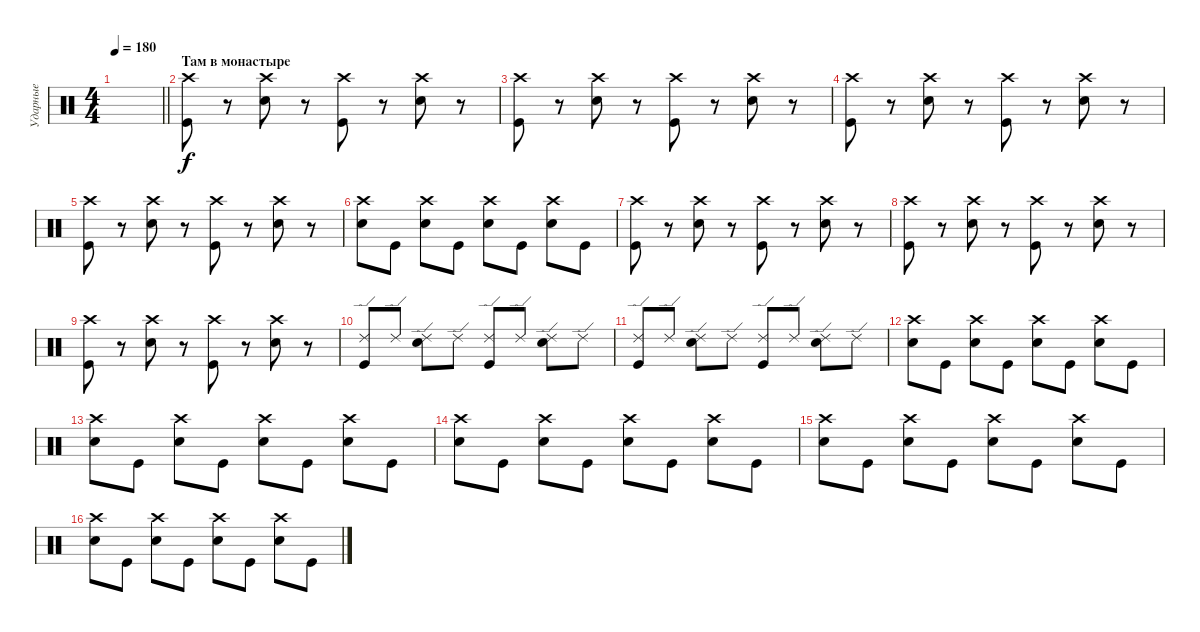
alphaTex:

\track ("Ударные" "Ударные") {instrument percussion}
\staff {score}
\articulation defaults
\ts (4 4)
\tempo 180
\clef neutral
\barLineRight lightlight
\ks c
|
\section ("" "Там в монастыре")
("Kick (hit)" "Crash high (hit)").8 r.8 ("Electric Snare (hit)" "Crash high (hit)").8 r.8 ("Kick (hit)" "Crash high (hit)").8 r.8 ("Electric Snare (hit)" "Crash high (hit)").8 r.8 |
("Kick (hit)" "Crash high (hit)").8 r.8 ("Electric Snare (hit)" "Crash high (hit)").8 r.8 ("Kick (hit)" "Crash high (hit)").8 r.8 ("Electric Snare (hit)" "Crash high (hit)").8 r.8 |
("Kick (hit)" "Crash high (hit)").8 r.8 ("Electric Snare (hit)" "Crash high (hit)").8 r.8 ("Kick (hit)" "Crash high (hit)").8 r.8 ("Electric Snare (hit)" "Crash high (hit)").8 r.8 |
("Kick (hit)" "Crash high (hit)").8 r.8 ("Electric Snare (hit)" "Crash high (hit)").8 r.8 ("Kick (hit)" "Crash high (hit)").8 r.8 ("Electric Snare (hit)" "Crash high (hit)").8 r.8 |
("Electric Snare (hit)" "Crash high (hit)").8 "Kick (hit)".8 ("Electric Snare (hit)" "Crash high (hit)").8 "Kick (hit)".8 ("Electric Snare (hit)" "Crash high (hit)").8 "Kick (hit)".8 ("Electric Snare (hit)" "Crash high (hit)").8 "Kick (hit)".8 |
("Kick (hit)" "Crash high (hit)").8 r.8 ("Electric Snare (hit)" "Crash high (hit)").8 r.8 ("Kick (hit)" "Crash high (hit)").8 r.8 ("Electric Snare (hit)" "Crash high (hit)").8 r.8 |
("Kick (hit)" "Crash high (hit)").8 r.8 ("Electric Snare (hit)" "Crash high (hit)").8 r.8 ("Kick (hit)" "Crash high (hit)").8 r.8 ("Electric Snare (hit)" "Crash high (hit)").8 r.8 |
("Kick (hit)" "Crash high (hit)").8 r.8 ("Electric Snare (hit)" "Crash high (hit)").8 r.8 ("Kick (hit)" "Crash high (hit)").8 r.8 ("Electric Snare (hit)" "Crash high (hit)").8 r.8 |
("Kick (hit)" "Ride (edge) 2").8 "Ride (edge) 2".8 ("Electric Snare (hit)" "Ride (edge) 2").8 "Ride (edge) 2".8 ("Kick (hit)" "Ride (edge) 2").8 "Ride (edge) 2".8 ("Electric Snare (hit)" "Ride (edge) 2").8 "Ride (edge) 2".8 |
("Kick (hit)" "Ride (edge) 2").8 "Ride (edge) 2".8 ("Electric Snare (hit)" "Ride (edge) 2").8 "Ride (edge) 2".8 ("Kick (hit)" "Ride (edge) 2").8 "Ride (edge) 2".8 ("Electric Snare (hit)" "Ride (edge) 2").8 "Ride (edge) 2".8 |
("Electric Snare (hit)" "Crash high (hit)").8 "Kick (hit)".8 ("Electric Snare (hit)" "Crash high (hit)").8 "Kick (hit)".8 ("Electric Snare (hit)" "Crash high (hit)").8 "Kick (hit)".8 ("Electric Snare (hit)" "Crash high (hit)").8 "Kick (hit)".8 |
("Electric Snare (hit)" "Crash high (hit)").8 "Kick (hit)".8 ("Electric Snare (hit)" "Crash high (hit)").8 "Kick (hit)".8 ("Electric Snare (hit)" "Crash high (hit)").8 "Kick (hit)".8 ("Electric Snare (hit)" "Crash high (hit)").8 "Kick (hit)".8 |
("Electric Snare (hit)" "Crash high (hit)").8 "Kick (hit)".8 ("Electric Snare (hit)" "Crash high (hit)").8 "Kick (hit)".8 ("Electric Snare (hit)" "Crash high (hit)").8 "Kick (hit)".8 ("Electric Snare (hit)" "Crash high (hit)").8 "Kick (hit)".8 |
("Electric Snare (hit)" "Crash high (hit)").8 "Kick (hit)".8 ("Electric Snare (hit)" "Crash high (hit)").8 "Kick (hit)".8 ("Electric Snare (hit)" "Crash high (hit)").8 "Kick (hit)".8 ("Electric Snare (hit)" "Crash high (hit)").8 "Kick (hit)".8 |
("Electric Snare (hit)" "Crash high (hit)").8 "Kick (hit)".8 ("Electric Snare (hit)" "Crash high (hit)").8 "Kick (hit)".8 ("Electric Snare (hit)" "Crash high (hit)").8 "Kick (hit)".8 ("Electric Snare (hit)" "Crash high (hit)").8 "Kick (hit)".8
